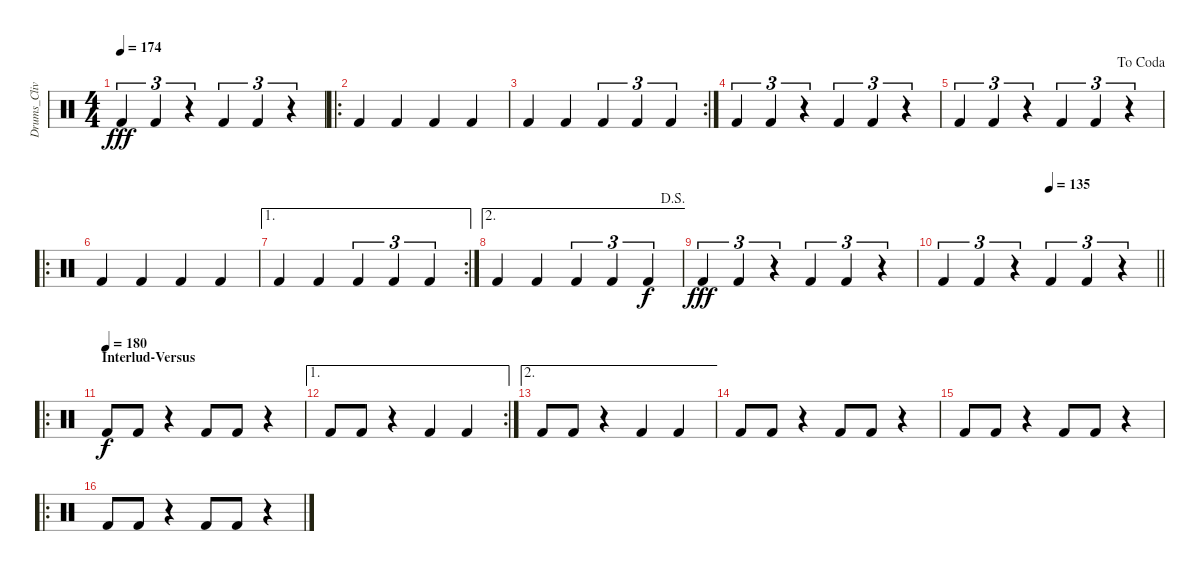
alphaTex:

\track ("Drums_CliveBurr" "Drums_Cliv") {instrument percussion}
\staff {score}
\articulation defaults
\ts (4 4)
\tempo 174
\clef neutral
\ks c "Kick (hit) 2".4{tu (3 2) dy fff} "Kick (hit) 2".4{tu (3 2)}
r.4{tu (3 2)} "Kick (hit) 2".4{tu (3 2)} "Kick (hit) 2".4{tu (3 2)} r.4{tu (3 2)} |
\ro "Kick (hit) 2".4 "Kick (hit) 2".4 "Kick (hit) 2".4 "Kick (hit) 2".4
|
\rc 2 "Kick (hit) 2".4 "Kick (hit) 2".4 "Kick (hit) 2".4{tu (3 2)} "Kick (hit) 2".4{tu (3 2)} "Kick (hit) 2".4{tu (3 2)}
|
"Kick (hit) 2".4{tu (3 2)} "Kick (hit) 2".4{tu (3 2)} r.4{tu (3 2)} "Kick (hit) 2".4{tu (3 2)} "Kick (hit) 2".4{tu (3 2)} r.4{tu (3 2)} |
\jump dacoda "Kick (hit) 2".4{tu (3 2)} "Kick (hit) 2".4{tu (3 2)}
r.4{tu (3 2)} "Kick (hit) 2".4{tu (3 2)} "Kick (hit) 2".4{tu (3 2)} r.4{tu (3 2)} |
\ro "Kick (hit) 2".4 "Kick (hit) 2".4 "Kick (hit) 2".4 "Kick (hit) 2".4
|
\ae 1
\rc 2 "Kick (hit) 2".4 "Kick (hit) 2".4 "Kick (hit) 2".4{tu (3 2)} "Kick (hit) 2".4{tu (3 2)} "Kick (hit) 2".4{tu (3 2)}
|
\ae 2
\jump dalsegno "Kick (hit) 2".4 "Kick (hit) 2".4 "Kick (hit) 2".4{tu (3 2)} "Kick (hit) 2".4{tu (3 2)} "Kick (hit) 2".4{tu (3 2) dy f}
|
"Kick (hit) 2".4{tu (3 2) dy fff} "Kick (hit) 2".4{tu (3 2)} r.4{tu (3 2)} "Kick (hit) 2".4{tu (3 2)} "Kick (hit) 2".4{tu (3 2)} r.4{tu (3 2)} |
\tempo (135 0.5)
\barLineRight lightlight "Kick (hit) 2".4{tu (3 2)} "Kick (hit) 2".4{tu (3 2)}
r.4{tu (3 2)} "Kick (hit) 2".4{tu (3 2)} "Kick (hit) 2".4{tu (3 2)} r.4{tu (3 2)} |
\ro
\section ("" "Interlud-Versus")
\tempo (180)
"Kick (hit) 2".8{dy f} "Kick (hit) 2".8 r.4 "Kick (hit) 2".8 "Kick (hit) 2".8 r.4 |
\ae 1
\rc 2 "Kick (hit) 2".8 "Kick (hit) 2".8
r.4 "Kick (hit) 2".4 "Kick (hit) 2".4 |
\ae 2 "Kick (hit) 2".8 "Kick (hit) 2".8
r.4 "Kick (hit) 2".4 "Kick (hit) 2".4 |
"Kick (hit) 2".8 "Kick (hit) 2".8 r.4 "Kick (hit) 2".8 "Kick (hit) 2".8 r.4 |
"Kick (hit) 2".8 "Kick (hit) 2".8 r.4 "Kick (hit) 2".8 "Kick (hit) 2".8 r.4 |
\ro "Kick (hit) 2".8 "Kick (hit) 2".8
r.4 "Kick (hit) 2".8 "Kick (hit) 2".8 r.4
